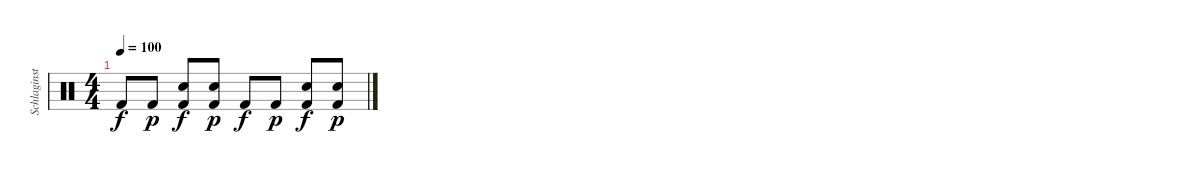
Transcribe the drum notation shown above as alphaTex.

\track ("Schlaginstrumente - Auswahl" "Schlaginst") {instrument percussion}
\staff {score}
\articulation defaults
\ts (4 4)
\tempo 100
\clef neutral
\ks c "Kick (hit) 2".8{dy f} "Kick (hit) 2".8{dy p}
("Electric Snare (hit)" "Kick (hit) 2").8{dy f} ("Electric Snare (hit)" "Kick (hit) 2").8{dy p} "Kick (hit) 2".8{dy f} "Kick (hit) 2".8{dy p} ("Electric Snare (hit)" "Kick (hit) 2").8{dy f} ("Electric Snare (hit)" "Kick (hit) 2").8{dy p}
